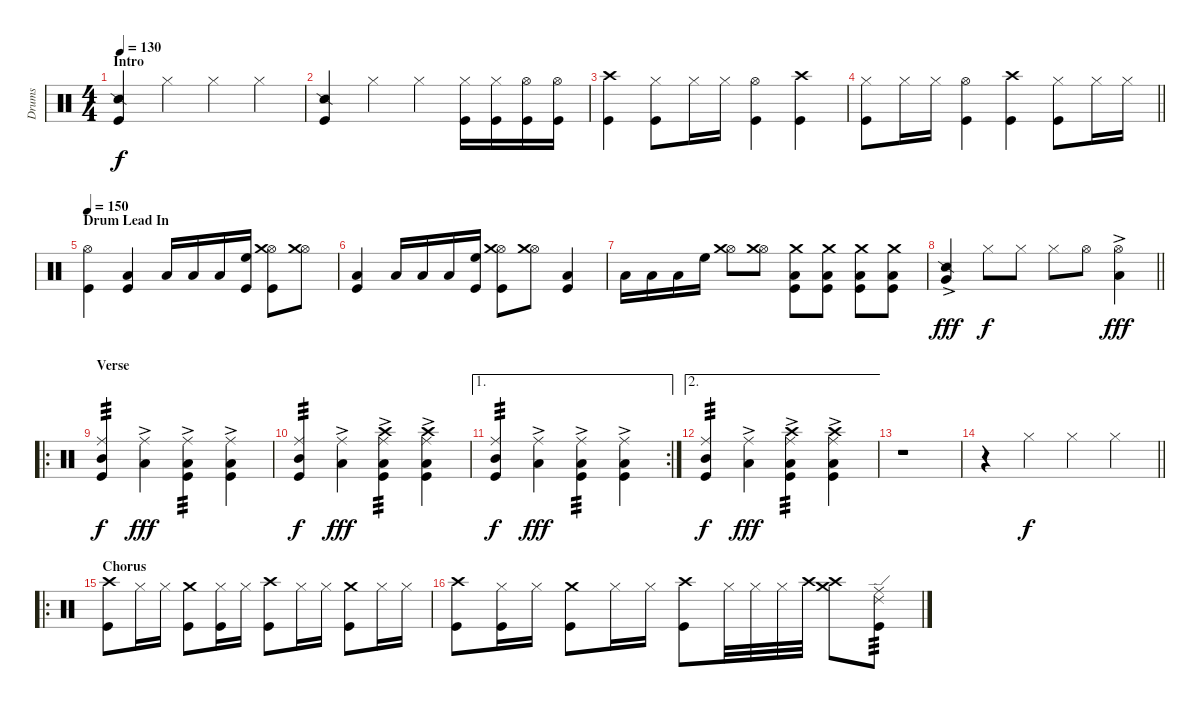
\track ("Drums" "Drums") {instrument percussion}
\staff {score}
\articulation defaults
\ts (4 4)
\section ("" "Intro")
\tempo 130
\clef neutral
\ks c
("Snare (side stick) 2" "Kick (hit)").4{dy f} "Hi-Hat (closed)".4 "Hi-Hat (closed)".4 "Hi-Hat (closed)".4 |
("Snare (side stick) 2" "Kick (hit)").4 "Hi-Hat (closed)".4 "Hi-Hat (closed)".4 ("Hi-Hat (closed)" "Kick (hit)").16 ("Hi-Hat (closed)" "Kick (hit)").16 ("Hi-Hat (open)" "Kick (hit)").16 ("Hi-Hat (open)" "Kick (hit)").16 |
("Crash high (hit)" "Kick (hit)").4 ("Hi-Hat (closed)" "Kick (hit)").8 "Hi-Hat (closed)".16 "Hi-Hat (closed)".16 ("Hi-Hat (open)" "Kick (hit)").4 ("Crash high (hit)" "Kick (hit)").4 |
\barLineRight lightlight
("Hi-Hat (closed)" "Kick (hit)").8 "Hi-Hat (closed)".16 "Hi-Hat (closed)".16 ("Hi-Hat (open)" "Kick (hit)").4 ("Crash high (hit)" "Kick (hit)").4 ("Hi-Hat (closed)" "Kick (hit)").8 "Hi-Hat (closed)".16 "Hi-Hat (closed)".16 |
\section ("" "Drum Lead In")
\tempo 150
("Hi-Hat (open)" "Kick (hit)").4 ("Low Tom (hit)" "Kick (hit)").4 "Low Tom (hit)".16 "Low Tom (hit)".16 "Low Tom (hit)".16 ("High Floor Tom (hit)" "Kick (hit)").16 ("Hi-Hat (open)" "Crash medium (hit)" "Kick (hit)").8 ("Hi-Hat (open)" "Crash medium (hit)").8 |
("Low Tom (hit)" "Kick (hit)").4 "Low Tom (hit)".16 "Low Tom (hit)".16 "Low Tom (hit)".16 ("High Floor Tom (hit)" "Kick (hit)").16 ("Hi-Hat (open)" "Crash medium (hit)" "Kick (hit)").8 ("Hi-Hat (open)" "Crash medium (hit)").8 ("Low Tom (hit)" "Kick (hit)").4 |
"Low Tom (hit)".16 "Low Tom (hit)".16 "Low Tom (hit)".16 "High Floor Tom (hit)".16 ("Hi-Hat (open)" "Crash medium (hit)").8 ("Hi-Hat (open)" "Crash medium (hit)").8 ("Low Tom (hit)" "Crash medium (hit)" "Kick (hit)").8 ("Low Tom (hit)" "Crash medium (hit)" "Kick (hit)").8 ("Low Tom (hit)" "Crash medium (hit)" "Kick (hit)").8 ("Low Tom (hit)" "Crash medium (hit)" "Kick (hit)").8 |
\barLineRight lightlight
("Snare (side stick) 2"{ac} "Very Low Tom (hit)"{ac}).4{dy fff} "Hi-Hat (closed)".8{dy f} "Hi-Hat (closed)".8 "Hi-Hat (closed)".8 "Hi-Hat (open)".8 ("Hi-Hat (open)" "Low Floor Tom (hit)"{ac}).4{dy fff} |
\ro
\section ("" "Verse")
("Ride (middle)" "Mid Tom (hit)" "Kick (hit)").4{tp 3 dy f} ("Ride (middle)" "Low Tom (hit)"{ac}).4{dy fff} ("Ride (middle)" "Low Tom (hit)"{ac} "Kick (hit)").4{tp 3} ("Ride (middle)" "Low Tom (hit)"{ac} "Kick (hit)").4 |
("Ride (middle)" "Mid Tom (hit)" "Kick (hit)").4{tp 3 dy f} ("Ride (middle)" "Low Tom (hit)"{ac}).4{dy fff} ("Ride (middle)" "Low Floor Tom (hit)"{ac} "Crash high (hit)" "Kick (hit)").4{tp 3} ("Ride (middle)" "Low Floor Tom (hit)"{ac} "Crash high (hit)" "Kick (hit)").4 |
\ae 1
\rc 2
("Ride (middle)" "Mid Tom (hit)" "Kick (hit)").4{tp 3 dy f} ("Ride (middle)" "Low Tom (hit)"{ac}).4{dy fff} ("Ride (middle)" "Low Tom (hit)"{ac} "Kick (hit)").4{tp 3} ("Ride (middle)" "Low Tom (hit)"{ac} "Kick (hit)").4 |
\ae 2
("Ride (middle)" "Mid Tom (hit)" "Kick (hit)").4{tp 3 dy f} ("Ride (middle)" "Low Tom (hit)"{ac}).4{dy fff} ("Ride (middle)" "Low Floor Tom (hit)"{ac} "Crash high (hit)" "Kick (hit)").4{tp 3} ("Ride (middle)" "Low Floor Tom (hit)"{ac} "Crash high (hit)" "Kick (hit)").4 |
r.1 |
\barLineRight lightlight
r.4 "Hi-Hat (closed)".4{dy f} "Hi-Hat (closed)".4 "Hi-Hat (closed)".4 |
\ro
\section ("" "Chorus")
("Crash high (hit)" "Kick (hit)").8 "Hi-Hat (closed)".16 "Hi-Hat (closed)".16 ("Crash medium (hit)" "Kick (hit)").8 ("Hi-Hat (closed)" "Kick (hit)").16 "Hi-Hat (closed)".16 ("Crash high (hit)" "Kick (hit)").8 "Hi-Hat (closed)".16 "Hi-Hat (closed)".16 ("Crash medium (hit)" "Kick (hit)").8 "Hi-Hat (closed)".16 "Hi-Hat (closed)".16 |
("Crash high (hit)" "Kick (hit)").8 ("Hi-Hat (closed)" "Kick (hit)").16 "Hi-Hat (closed)".16 ("Crash medium (hit)" "Kick (hit)").8 "Hi-Hat (closed)".16 "Hi-Hat (closed)".16 ("Crash high (hit)" "Kick (hit)").8 "Hi-Hat (closed)".32 "Hi-Hat (closed)".32 "Hi-Hat (closed)".32 "Crash high (hit)".32 ("Crash high (hit)" "Crash medium (hit)").8 ("Ride (middle)" "Ride (edge) 2" "Kick (hit)").8{tp 3}
